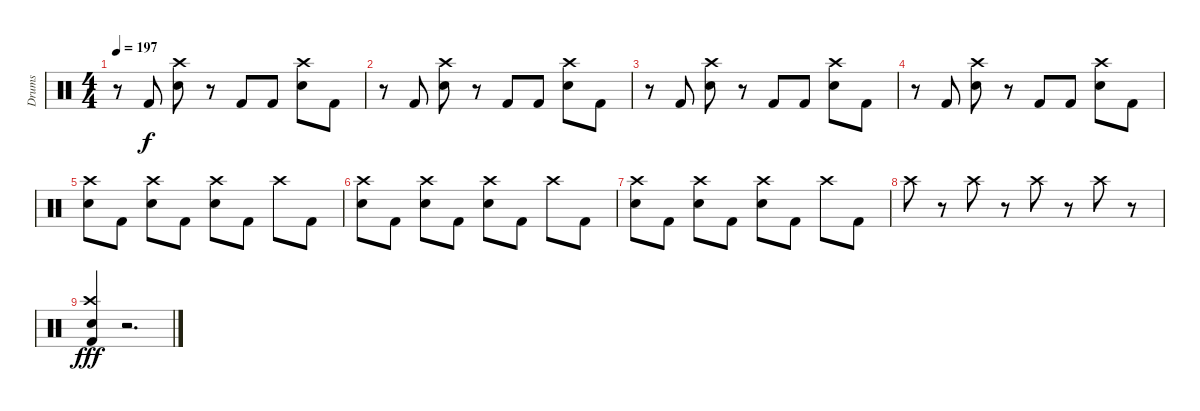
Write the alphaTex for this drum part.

\track ("Drums" "Drums") {instrument percussion}
\staff {score}
\articulation defaults
\ts (4 4)
\tempo 197
\clef neutral
\ks c
r.8{dy f} "Kick (hit) 2".8 ("Crash high (hit)" "Electric Snare (hit)").8 r.8 "Kick (hit) 2".8 "Kick (hit) 2".8 ("Crash high (hit)" "Electric Snare (hit)").8 "Kick (hit) 2".8 |
r.8 "Kick (hit) 2".8 ("Crash high (hit)" "Electric Snare (hit)").8 r.8 "Kick (hit) 2".8 "Kick (hit) 2".8 ("Crash high (hit)" "Electric Snare (hit)").8 "Kick (hit) 2".8 |
r.8 "Kick (hit) 2".8 ("Crash high (hit)" "Electric Snare (hit)").8 r.8 "Kick (hit) 2".8 "Kick (hit) 2".8 ("Crash high (hit)" "Electric Snare (hit)").8 "Kick (hit) 2".8 |
r.8 "Kick (hit) 2".8 ("Crash high (hit)" "Electric Snare (hit)").8 r.8 "Kick (hit) 2".8 "Kick (hit) 2".8 ("Crash high (hit)" "Electric Snare (hit)").8 "Kick (hit) 2".8 |
("Crash high (hit)" "Electric Snare (hit)").8 "Kick (hit) 2".8 ("Crash high (hit)" "Electric Snare (hit)").8 "Kick (hit) 2".8 ("Crash high (hit)" "Electric Snare (hit)").8 "Kick (hit) 2".8 "Crash high (hit)".8 "Kick (hit) 2".8 |
("Crash high (hit)" "Electric Snare (hit)").8 "Kick (hit) 2".8 ("Crash high (hit)" "Electric Snare (hit)").8 "Kick (hit) 2".8 ("Crash high (hit)" "Electric Snare (hit)").8 "Kick (hit) 2".8 "Crash high (hit)".8 "Kick (hit) 2".8 |
("Crash high (hit)" "Electric Snare (hit)").8 "Kick (hit) 2".8 ("Crash high (hit)" "Electric Snare (hit)").8 "Kick (hit) 2".8 ("Crash high (hit)" "Electric Snare (hit)").8 "Kick (hit) 2".8 "Crash high (hit)".8 "Kick (hit) 2".8 |
"Crash high (hit)".8 r.8 "Crash high (hit)".8 r.8 "Crash high (hit)".8 r.8 "Crash high (hit)".8 r.8 |
("Crash high (hit)" "Electric Snare (hit)" "Kick (hit) 2").4{dy fff} r.2{d}
